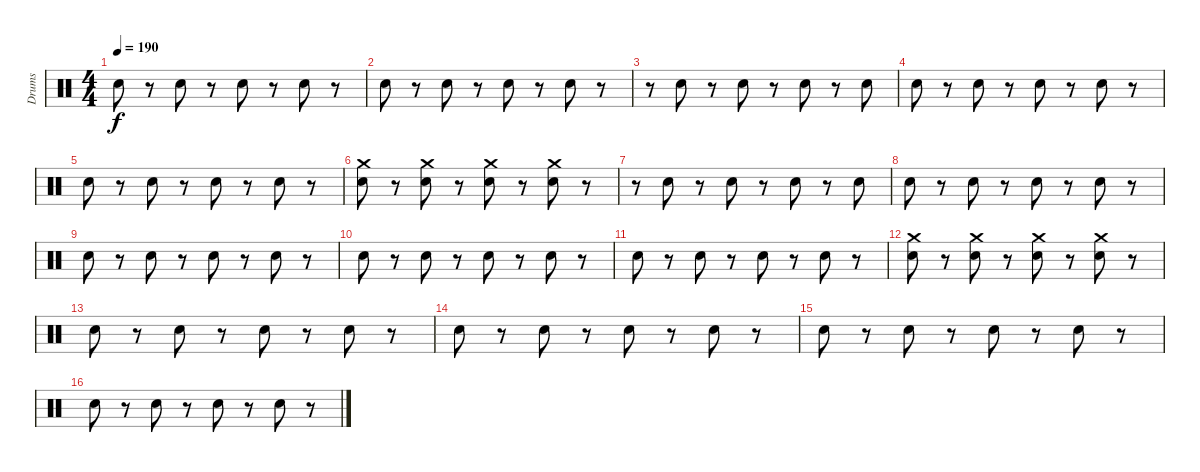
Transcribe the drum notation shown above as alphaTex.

\track ("Drums" "Drums") {instrument percussion}
\staff {score}
\articulation defaults
\ts (4 4)
\tempo 190
\clef neutral
\ks c "Electric Snare (hit)".8{dy f}
r.8 "Electric Snare (hit)".8 r.8 "Electric Snare (hit)".8 r.8 "Electric Snare (hit)".8 r.8 |
"Electric Snare (hit)".8 r.8 "Electric Snare (hit)".8 r.8 "Electric Snare (hit)".8 r.8 "Electric Snare (hit)".8 r.8 |
r.8 "Electric Snare (hit)".8 r.8 "Electric Snare (hit)".8 r.8 "Electric Snare (hit)".8 r.8 "Electric Snare (hit)".8 |
"Electric Snare (hit)".8 r.8 "Electric Snare (hit)".8 r.8 "Electric Snare (hit)".8 r.8 "Electric Snare (hit)".8 r.8 |
"Electric Snare (hit)".8 r.8 "Electric Snare (hit)".8 r.8 "Electric Snare (hit)".8 r.8 "Electric Snare (hit)".8 r.8 |
("Crash medium (hit)" "Electric Snare (hit)").8 r.8 ("Crash medium (hit)" "Electric Snare (hit)").8 r.8 ("Crash medium (hit)" "Electric Snare (hit)").8 r.8 ("Crash medium (hit)" "Electric Snare (hit)").8 r.8 |
r.8 "Electric Snare (hit)".8 r.8 "Electric Snare (hit)".8 r.8 "Electric Snare (hit)".8 r.8 "Electric Snare (hit)".8 |
"Electric Snare (hit)".8 r.8 "Electric Snare (hit)".8 r.8 "Electric Snare (hit)".8 r.8 "Electric Snare (hit)".8 r.8 |
"Electric Snare (hit)".8 r.8 "Electric Snare (hit)".8 r.8 "Electric Snare (hit)".8 r.8 "Electric Snare (hit)".8 r.8 |
"Electric Snare (hit)".8 r.8 "Electric Snare (hit)".8 r.8 "Electric Snare (hit)".8 r.8 "Electric Snare (hit)".8 r.8 |
"Electric Snare (hit)".8 r.8 "Electric Snare (hit)".8 r.8 "Electric Snare (hit)".8 r.8 "Electric Snare (hit)".8 r.8 |
("Crash medium (hit)" "Electric Snare (hit)").8 r.8 ("Crash medium (hit)" "Electric Snare (hit)").8 r.8 ("Crash medium (hit)" "Electric Snare (hit)").8 r.8 ("Crash medium (hit)" "Electric Snare (hit)").8 r.8 |
"Electric Snare (hit)".8 r.8 "Electric Snare (hit)".8 r.8 "Electric Snare (hit)".8 r.8 "Electric Snare (hit)".8 r.8 |
"Electric Snare (hit)".8 r.8 "Electric Snare (hit)".8 r.8 "Electric Snare (hit)".8 r.8 "Electric Snare (hit)".8 r.8 |
"Electric Snare (hit)".8 r.8 "Electric Snare (hit)".8 r.8 "Electric Snare (hit)".8 r.8 "Electric Snare (hit)".8 r.8 |
"Electric Snare (hit)".8 r.8 "Electric Snare (hit)".8 r.8 "Electric Snare (hit)".8 r.8 "Electric Snare (hit)".8 r.8
